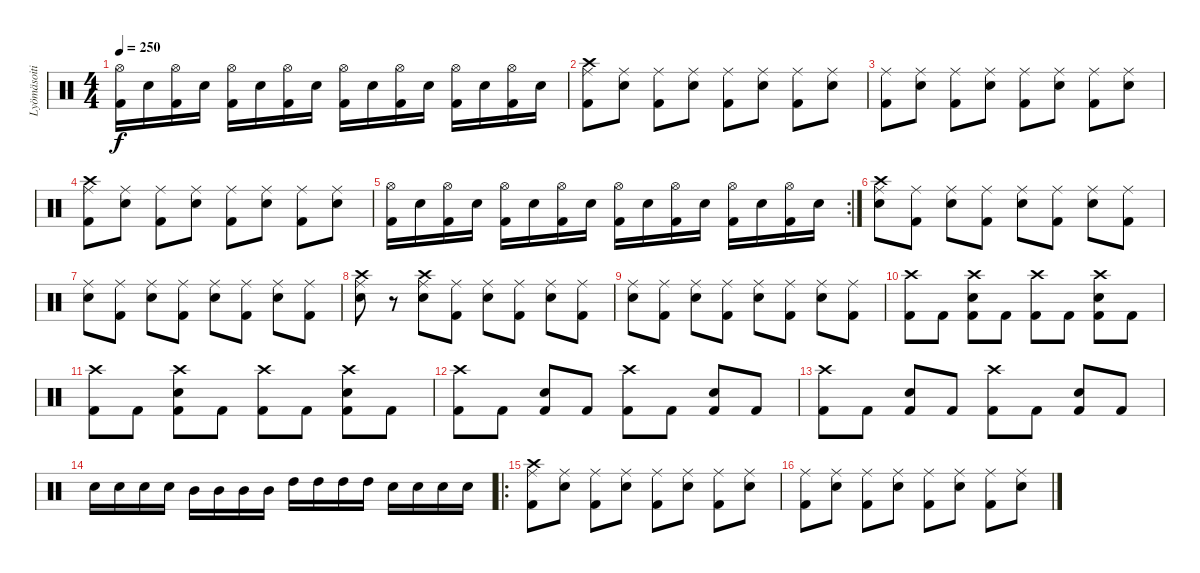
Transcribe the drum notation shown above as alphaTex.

\track ("Lyömäsoitin" "Lyömäsoiti") {instrument percussion}
\staff {score}
\articulation defaults
\ts (4 4)
\tempo 250
\clef neutral
\ks c
("Hi-Hat (open)" "Kick (hit) 2").16{dy f} "Electric Snare (hit)".16 ("Hi-Hat (open)" "Kick (hit) 2").16 "Electric Snare (hit)".16 ("Hi-Hat (open)" "Kick (hit) 2").16 "Electric Snare (hit)".16 ("Hi-Hat (open)" "Kick (hit) 2").16 "Electric Snare (hit)".16 ("Hi-Hat (open)" "Kick (hit) 2").16 "Electric Snare (hit)".16 ("Hi-Hat (open)" "Kick (hit) 2").16 "Electric Snare (hit)".16 ("Hi-Hat (open)" "Kick (hit) 2").16 "Electric Snare (hit)".16 ("Hi-Hat (open)" "Kick (hit) 2").16 "Electric Snare (hit)".16 |
("Crash high (hit)" "Ride (middle)" "Kick (hit) 2").8 ("Ride (middle)" "Electric Snare (hit)").8 ("Ride (middle)" "Kick (hit) 2").8 ("Ride (middle)" "Electric Snare (hit)").8 ("Ride (middle)" "Kick (hit) 2").8 ("Ride (middle)" "Electric Snare (hit)").8 ("Ride (middle)" "Kick (hit) 2").8 ("Ride (middle)" "Electric Snare (hit)").8 |
("Ride (middle)" "Kick (hit) 2").8 ("Ride (middle)" "Electric Snare (hit)").8 ("Ride (middle)" "Kick (hit) 2").8 ("Ride (middle)" "Electric Snare (hit)").8 ("Ride (middle)" "Kick (hit) 2").8 ("Ride (middle)" "Electric Snare (hit)").8 ("Ride (middle)" "Kick (hit) 2").8 ("Ride (middle)" "Electric Snare (hit)").8 |
("Crash high (hit)" "Ride (middle)" "Kick (hit) 2").8 ("Ride (middle)" "Electric Snare (hit)").8 ("Ride (middle)" "Kick (hit) 2").8 ("Ride (middle)" "Electric Snare (hit)").8 ("Ride (middle)" "Kick (hit) 2").8 ("Ride (middle)" "Electric Snare (hit)").8 ("Ride (middle)" "Kick (hit) 2").8 ("Ride (middle)" "Electric Snare (hit)").8 |
\rc 2
("Hi-Hat (open)" "Kick (hit) 2").16 "Electric Snare (hit)".16 ("Hi-Hat (open)" "Kick (hit) 2").16 "Electric Snare (hit)".16 ("Hi-Hat (open)" "Kick (hit) 2").16 "Electric Snare (hit)".16 ("Hi-Hat (open)" "Kick (hit) 2").16 "Electric Snare (hit)".16 ("Hi-Hat (open)" "Kick (hit) 2").16 "Electric Snare (hit)".16 ("Hi-Hat (open)" "Kick (hit) 2").16 "Electric Snare (hit)".16 ("Hi-Hat (open)" "Kick (hit) 2").16 "Electric Snare (hit)".16 ("Hi-Hat (open)" "Kick (hit) 2").16 "Electric Snare (hit)".16 |
("Crash high (hit)" "Ride (middle)" "Electric Snare (hit)").8 ("Ride (middle)" "Kick (hit) 2").8 ("Ride (middle)" "Electric Snare (hit)").8 ("Ride (middle)" "Kick (hit) 2").8 ("Ride (middle)" "Electric Snare (hit)").8 ("Ride (middle)" "Kick (hit) 2").8 ("Ride (middle)" "Electric Snare (hit)").8 ("Ride (middle)" "Kick (hit) 2").8 |
("Ride (middle)" "Electric Snare (hit)").8 ("Ride (middle)" "Kick (hit) 2").8 ("Ride (middle)" "Electric Snare (hit)").8 ("Ride (middle)" "Kick (hit) 2").8 ("Ride (middle)" "Electric Snare (hit)").8 ("Ride (middle)" "Kick (hit) 2").8 ("Ride (middle)" "Electric Snare (hit)").8 ("Ride (middle)" "Kick (hit) 2").8 |
("Crash high (hit)" "Ride (middle)" "Electric Snare (hit)").8 r.8 ("Crash high (hit)" "Ride (middle)" "Electric Snare (hit)").8 ("Ride (middle)" "Kick (hit) 2").8 ("Ride (middle)" "Electric Snare (hit)").8 ("Ride (middle)" "Kick (hit) 2").8 ("Ride (middle)" "Electric Snare (hit)").8 ("Ride (middle)" "Kick (hit) 2").8 |
("Ride (middle)" "Electric Snare (hit)").8 ("Ride (middle)" "Kick (hit) 2").8 ("Ride (middle)" "Electric Snare (hit)").8 ("Ride (middle)" "Kick (hit) 2").8 ("Ride (middle)" "Electric Snare (hit)").8 ("Ride (middle)" "Kick (hit) 2").8 ("Ride (middle)" "Electric Snare (hit)").8 ("Ride (middle)" "Kick (hit) 2").8 |
("Crash high (hit)" "Kick (hit) 2").8 "Kick (hit) 2".8 ("Crash high (hit)" "Electric Snare (hit)" "Kick (hit) 2").8 "Kick (hit) 2".8 ("Crash high (hit)" "Kick (hit) 2").8 "Kick (hit) 2".8 ("Crash high (hit)" "Electric Snare (hit)" "Kick (hit) 2").8 "Kick (hit) 2".8 |
("Crash high (hit)" "Kick (hit) 2").8 "Kick (hit) 2".8 ("Crash high (hit)" "Electric Snare (hit)" "Kick (hit) 2").8 "Kick (hit) 2".8 ("Crash high (hit)" "Kick (hit) 2").8 "Kick (hit) 2".8 ("Crash high (hit)" "Electric Snare (hit)" "Kick (hit) 2").8 "Kick (hit) 2".8 |
("Crash high (hit)" "Kick (hit) 2").8 "Kick (hit) 2".8 ("Electric Snare (hit)" "Kick (hit) 2").8 "Kick (hit) 2".8 ("Crash high (hit)" "Kick (hit) 2").8 "Kick (hit) 2".8 ("Electric Snare (hit)" "Kick (hit) 2").8 "Kick (hit) 2".8 |
("Crash high (hit)" "Kick (hit) 2").8 "Kick (hit) 2".8 ("Electric Snare (hit)" "Kick (hit) 2").8 "Kick (hit) 2".8 ("Crash high (hit)" "Kick (hit) 2").8 "Kick (hit) 2".8 ("Electric Snare (hit)" "Kick (hit) 2").8 "Kick (hit) 2".8 |
"Electric Snare (hit)".16 "Electric Snare (hit)".16 "Electric Snare (hit)".16 "Electric Snare (hit)".16 "Mid Tom (hit)".16 "Mid Tom (hit)".16 "Mid Tom (hit)".16 "Mid Tom (hit)".16 "High Tom (hit)".16 "High Tom (hit)".16 "High Tom (hit)".16 "High Tom (hit)".16 "Electric Snare (hit)".16 "Electric Snare (hit)".16 "Electric Snare (hit)".16 "Electric Snare (hit)".16 |
\ro
("Crash high (hit)" "Ride (middle)" "Kick (hit) 2").8 ("Ride (middle)" "Electric Snare (hit)").8 ("Ride (middle)" "Kick (hit) 2").8 ("Ride (middle)" "Electric Snare (hit)").8 ("Ride (middle)" "Kick (hit) 2").8 ("Ride (middle)" "Electric Snare (hit)").8 ("Ride (middle)" "Kick (hit) 2").8 ("Ride (middle)" "Electric Snare (hit)").8 |
("Ride (middle)" "Kick (hit) 2").8 ("Ride (middle)" "Electric Snare (hit)").8 ("Ride (middle)" "Kick (hit) 2").8 ("Ride (middle)" "Electric Snare (hit)").8 ("Ride (middle)" "Kick (hit) 2").8 ("Ride (middle)" "Electric Snare (hit)").8 ("Ride (middle)" "Kick (hit) 2").8 ("Ride (middle)" "Electric Snare (hit)").8
